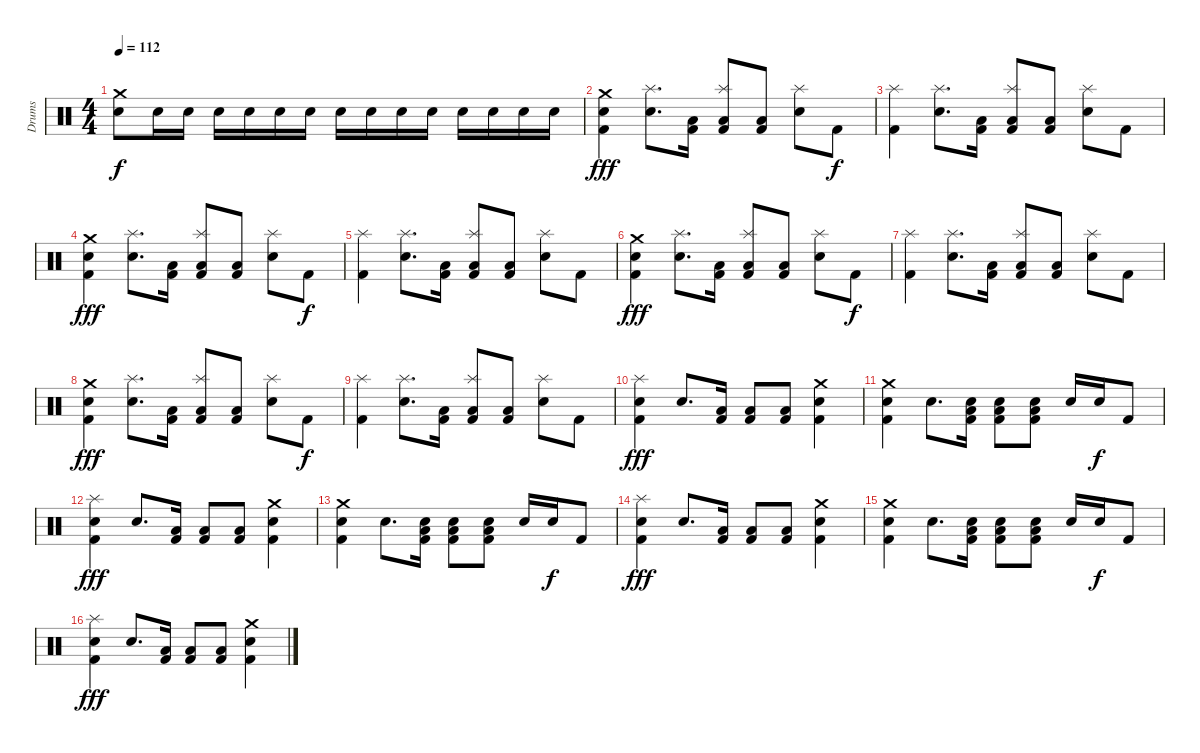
\track ("Drums" "Drums") {instrument percussion}
\staff {score}
\articulation defaults
\ts (4 4)
\tempo 112
\clef neutral
\ks c
("Crash medium (hit)" "Electric Snare (hit)").8{dy f} "Electric Snare (hit)".16 "Electric Snare (hit)".16 "Electric Snare (hit)".16 "Electric Snare (hit)".16 "Electric Snare (hit)".16 "Electric Snare (hit)".16 "Electric Snare (hit)".16 "Electric Snare (hit)".16 "Electric Snare (hit)".16 "Electric Snare (hit)".16 "Electric Snare (hit)".16 "Electric Snare (hit)".16 "Electric Snare (hit)".16 "Electric Snare (hit)".16 |
("Crash medium (hit)" "Snare (hit) 2" "Kick (hit) 2").4{dy fff} ("Splash (hit)" "Electric Snare (hit)").8{d} ("Kick (hit) 2" "Low Floor Tom (hit)").16 ("Splash (hit)" "Kick (hit) 2" "Low Floor Tom (hit)").8 ("Kick (hit) 2" "Low Floor Tom (hit)").8 ("Splash (hit)" "Electric Snare (hit)").8 "Kick (hit) 2".8{dy f} |
("Splash (hit)" "Kick (hit) 2").4 ("Splash (hit)" "Electric Snare (hit)").8{d} ("Kick (hit) 2" "Low Floor Tom (hit)").16 ("Splash (hit)" "Kick (hit) 2" "Low Floor Tom (hit)").8 ("Kick (hit) 2" "Low Floor Tom (hit)").8 ("Splash (hit)" "Electric Snare (hit)").8 "Kick (hit) 2".8 |
("Crash medium (hit)" "Snare (hit) 2" "Kick (hit) 2").4{dy fff} ("Splash (hit)" "Electric Snare (hit)").8{d} ("Kick (hit) 2" "Low Floor Tom (hit)").16 ("Splash (hit)" "Kick (hit) 2" "Low Floor Tom (hit)").8 ("Kick (hit) 2" "Low Floor Tom (hit)").8 ("Splash (hit)" "Electric Snare (hit)").8 "Kick (hit) 2".8{dy f} |
("Splash (hit)" "Kick (hit) 2").4 ("Splash (hit)" "Electric Snare (hit)").8{d} ("Kick (hit) 2" "Low Floor Tom (hit)").16 ("Splash (hit)" "Kick (hit) 2" "Low Floor Tom (hit)").8 ("Kick (hit) 2" "Low Floor Tom (hit)").8 ("Splash (hit)" "Electric Snare (hit)").8 "Kick (hit) 2".8 |
("Crash medium (hit)" "Snare (hit) 2" "Kick (hit) 2").4{dy fff} ("Splash (hit)" "Electric Snare (hit)").8{d} ("Kick (hit) 2" "Low Floor Tom (hit)").16 ("Splash (hit)" "Kick (hit) 2" "Low Floor Tom (hit)").8 ("Kick (hit) 2" "Low Floor Tom (hit)").8 ("Splash (hit)" "Electric Snare (hit)").8 "Kick (hit) 2".8{dy f} |
("Splash (hit)" "Kick (hit) 2").4 ("Splash (hit)" "Electric Snare (hit)").8{d} ("Kick (hit) 2" "Low Floor Tom (hit)").16 ("Splash (hit)" "Kick (hit) 2" "Low Floor Tom (hit)").8 ("Kick (hit) 2" "Low Floor Tom (hit)").8 ("Splash (hit)" "Electric Snare (hit)").8 "Kick (hit) 2".8 |
("Crash medium (hit)" "Snare (hit) 2" "Kick (hit) 2").4{dy fff} ("Splash (hit)" "Electric Snare (hit)").8{d} ("Kick (hit) 2" "Low Floor Tom (hit)").16 ("Splash (hit)" "Kick (hit) 2" "Low Floor Tom (hit)").8 ("Kick (hit) 2" "Low Floor Tom (hit)").8 ("Splash (hit)" "Electric Snare (hit)").8 "Kick (hit) 2".8{dy f} |
("Splash (hit)" "Kick (hit) 2").4 ("Splash (hit)" "Electric Snare (hit)").8{d} ("Kick (hit) 2" "Low Floor Tom (hit)").16 ("Splash (hit)" "Kick (hit) 2" "Low Floor Tom (hit)").8 ("Kick (hit) 2" "Low Floor Tom (hit)").8 ("Splash (hit)" "Electric Snare (hit)").8 "Kick (hit) 2".8 |
("Splash (hit)" "Snare (hit) 2" "Kick (hit) 2").4{dy fff} "Electric Snare (hit)".8{d} ("Kick (hit) 2" "Low Floor Tom (hit)").16 ("Kick (hit) 2" "Low Floor Tom (hit)").8 ("Kick (hit) 2" "Low Floor Tom (hit)").8 ("Crash medium (hit)" "Electric Snare (hit)" "Kick (hit) 2").4 |
("Crash medium (hit)" "Electric Snare (hit)" "Kick (hit) 2").4 "Electric Snare (hit)".8{d} ("Kick (hit) 2" "Snare (hit) 2" "Low Floor Tom (hit)").16 ("Kick (hit) 2" "Snare (hit) 2" "Low Floor Tom (hit)").8 ("Kick (hit) 2" "Snare (hit) 2" "Low Floor Tom (hit)").8 "Electric Snare (hit)".16 "Electric Snare (hit)".16{dy f} "Kick (hit) 2".8 |
("Splash (hit)" "Snare (hit) 2" "Kick (hit) 2").4{dy fff} "Electric Snare (hit)".8{d} ("Kick (hit) 2" "Low Floor Tom (hit)").16 ("Kick (hit) 2" "Low Floor Tom (hit)").8 ("Kick (hit) 2" "Low Floor Tom (hit)").8 ("Crash medium (hit)" "Electric Snare (hit)" "Kick (hit) 2").4 |
("Crash medium (hit)" "Electric Snare (hit)" "Kick (hit) 2").4 "Electric Snare (hit)".8{d} ("Kick (hit) 2" "Snare (hit) 2" "Low Floor Tom (hit)").16 ("Kick (hit) 2" "Snare (hit) 2" "Low Floor Tom (hit)").8 ("Kick (hit) 2" "Snare (hit) 2" "Low Floor Tom (hit)").8 "Electric Snare (hit)".16 "Electric Snare (hit)".16{dy f} "Kick (hit) 2".8 |
("Splash (hit)" "Snare (hit) 2" "Kick (hit) 2").4{dy fff} "Electric Snare (hit)".8{d} ("Kick (hit) 2" "Low Floor Tom (hit)").16 ("Kick (hit) 2" "Low Floor Tom (hit)").8 ("Kick (hit) 2" "Low Floor Tom (hit)").8 ("Crash medium (hit)" "Electric Snare (hit)" "Kick (hit) 2").4 |
("Crash medium (hit)" "Electric Snare (hit)" "Kick (hit) 2").4 "Electric Snare (hit)".8{d} ("Kick (hit) 2" "Snare (hit) 2" "Low Floor Tom (hit)").16 ("Kick (hit) 2" "Snare (hit) 2" "Low Floor Tom (hit)").8 ("Kick (hit) 2" "Snare (hit) 2" "Low Floor Tom (hit)").8 "Electric Snare (hit)".16 "Electric Snare (hit)".16{dy f} "Kick (hit) 2".8 |
("Splash (hit)" "Snare (hit) 2" "Kick (hit) 2").4{dy fff} "Electric Snare (hit)".8{d} ("Kick (hit) 2" "Low Floor Tom (hit)").16 ("Kick (hit) 2" "Low Floor Tom (hit)").8 ("Kick (hit) 2" "Low Floor Tom (hit)").8 ("Crash medium (hit)" "Electric Snare (hit)" "Kick (hit) 2").4
